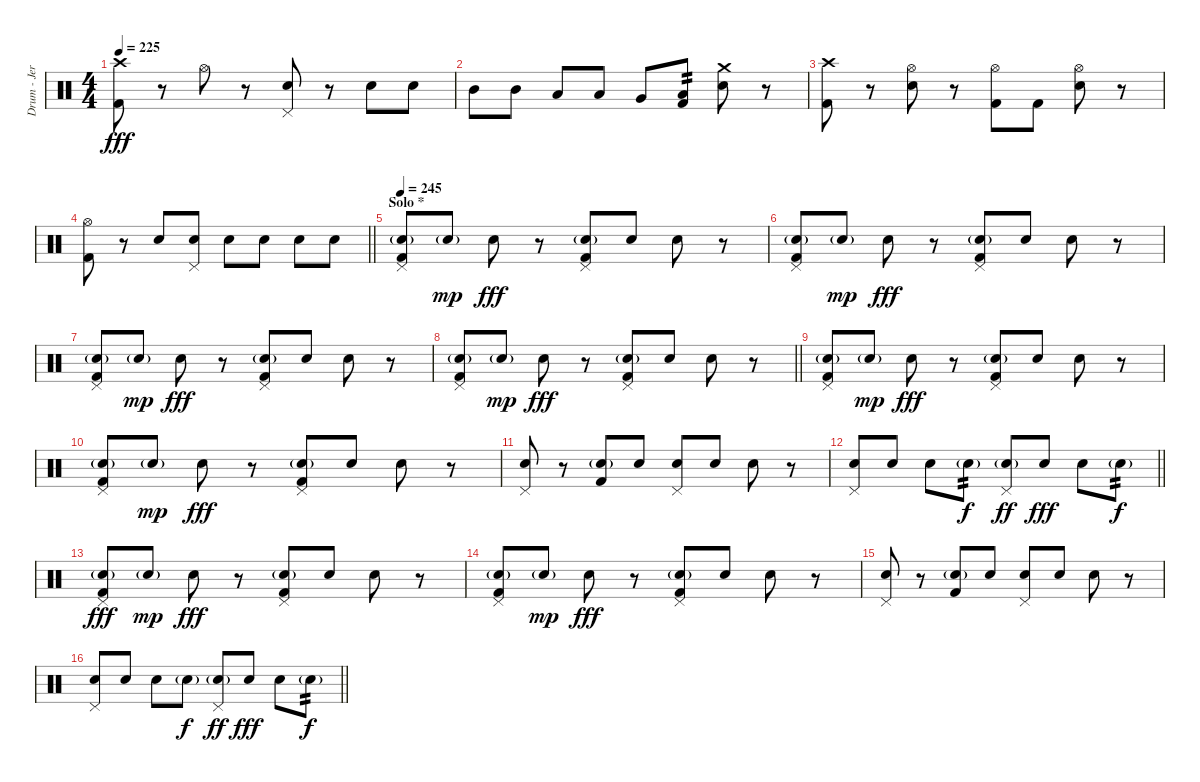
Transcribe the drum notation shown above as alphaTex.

\track ("Drum - Jerinx" "Drum - Jer") {instrument percussion}
\staff {score}
\articulation defaults
\ts (4 4)
\tempo 225
\clef neutral
\ks c
("Kick (hit) 2" "Crash high (hit)").8{dy fff} r.8 "Hi-Hat (open)".8 r.8 ("Pedal Hi-Hat (hit)" "Snare (hit) 2").8 r.8 "Snare (hit) 2".8 "Snare (hit) 2".8 |
"Mid Tom (hit)".8 "Mid Tom (hit)".8 "Low Tom (hit)".8 "Low Tom (hit)".8 "Very Low Tom (hit)".8 ("Kick (hit) 2" "Low Floor Tom (hit)").8{tp 2} ("Snare (hit) 2" "Crash medium (hit)").8 r.8 |
("Kick (hit) 2" "Crash high (hit)").8 r.8 ("Hi-Hat (open)" "Snare (hit) 2").8 r.8 ("Hi-Hat (open)" "Kick (hit) 2").8 "Kick (hit) 2".8 ("Hi-Hat (open)" "Snare (hit) 2").8 r.8 |
\barLineRight lightlight
("Hi-Hat (open)" "Kick (hit) 2").8 r.8 "Snare (hit) 2".8 ("Pedal Hi-Hat (hit)" "Snare (hit) 2").8 "Snare (hit) 2".8 "Snare (hit) 2".8 "Snare (hit) 2".8 "Snare (hit) 2".8 |
\section ("" "Solo *")
\tempo 245
("Pedal Hi-Hat (hit)" "Snare (hit) 2"{g} "Kick (hit) 2").8 "Snare (hit) 2"{g}.8{dy mp} "Snare (hit) 2".8{dy fff} r.8 ("Pedal Hi-Hat (hit)" "Snare (hit) 2"{g} "Kick (hit) 2").8 "Snare (hit) 2".8 "Snare (hit) 2".8 r.8 |
("Pedal Hi-Hat (hit)" "Snare (hit) 2"{g} "Kick (hit) 2").8 "Snare (hit) 2"{g}.8{dy mp} "Snare (hit) 2".8{dy fff} r.8 ("Pedal Hi-Hat (hit)" "Snare (hit) 2"{g} "Kick (hit) 2").8 "Snare (hit) 2".8 "Snare (hit) 2".8 r.8 |
("Pedal Hi-Hat (hit)" "Snare (hit) 2"{g} "Kick (hit) 2").8 "Snare (hit) 2"{g}.8{dy mp} "Snare (hit) 2".8{dy fff} r.8 ("Pedal Hi-Hat (hit)" "Snare (hit) 2"{g} "Kick (hit) 2").8 "Snare (hit) 2".8 "Snare (hit) 2".8 r.8 |
\barLineRight lightlight
("Pedal Hi-Hat (hit)" "Snare (hit) 2"{g} "Kick (hit) 2").8 "Snare (hit) 2"{g}.8{dy mp} "Snare (hit) 2".8{dy fff} r.8 ("Pedal Hi-Hat (hit)" "Snare (hit) 2"{g} "Kick (hit) 2").8 "Snare (hit) 2".8 "Snare (hit) 2".8 r.8 |
("Pedal Hi-Hat (hit)" "Snare (hit) 2"{g} "Kick (hit) 2").8 "Snare (hit) 2"{g}.8{dy mp} "Snare (hit) 2".8{dy fff} r.8 ("Pedal Hi-Hat (hit)" "Snare (hit) 2"{g} "Kick (hit) 2").8 "Snare (hit) 2".8 "Snare (hit) 2".8 r.8 |
("Pedal Hi-Hat (hit)" "Snare (hit) 2"{g} "Kick (hit) 2").8 "Snare (hit) 2"{g}.8{dy mp} "Snare (hit) 2".8{dy fff} r.8 ("Pedal Hi-Hat (hit)" "Snare (hit) 2"{g} "Kick (hit) 2").8 "Snare (hit) 2".8 "Snare (hit) 2".8 r.8 |
("Pedal Hi-Hat (hit)" "Snare (hit) 2").8 r.8 ("Snare (hit) 2"{g} "Kick (hit) 2").8 "Snare (hit) 2".8 ("Pedal Hi-Hat (hit)" "Snare (hit) 2").8 "Snare (hit) 2".8 "Snare (hit) 2".8 r.8 |
\barLineRight lightlight
("Pedal Hi-Hat (hit)" "Snare (hit) 2").8 "Snare (hit) 2".8 "Snare (hit) 2".8 "Snare (hit) 2"{g}.8{tp 2 dy f} ("Pedal Hi-Hat (hit)" "Snare (hit) 2"{g}).8{dy ff} "Snare (hit) 2".8{dy fff} "Snare (hit) 2".8 "Snare (hit) 2"{g}.8{tp 2 dy f} |
("Pedal Hi-Hat (hit)" "Snare (hit) 2"{g} "Kick (hit) 2").8{dy fff} "Snare (hit) 2"{g}.8{dy mp} "Snare (hit) 2".8{dy fff} r.8 ("Pedal Hi-Hat (hit)" "Snare (hit) 2"{g} "Kick (hit) 2").8 "Snare (hit) 2".8 "Snare (hit) 2".8 r.8 |
("Pedal Hi-Hat (hit)" "Snare (hit) 2"{g} "Kick (hit) 2").8 "Snare (hit) 2"{g}.8{dy mp} "Snare (hit) 2".8{dy fff} r.8 ("Pedal Hi-Hat (hit)" "Snare (hit) 2"{g} "Kick (hit) 2").8 "Snare (hit) 2".8 "Snare (hit) 2".8 r.8 |
("Pedal Hi-Hat (hit)" "Snare (hit) 2").8 r.8 ("Snare (hit) 2"{g} "Kick (hit) 2").8 "Snare (hit) 2".8 ("Pedal Hi-Hat (hit)" "Snare (hit) 2").8 "Snare (hit) 2".8 "Snare (hit) 2".8 r.8 |
\barLineRight lightlight
("Pedal Hi-Hat (hit)" "Snare (hit) 2").8 "Snare (hit) 2".8 "Snare (hit) 2".8 "Snare (hit) 2"{g}.8{dy f} ("Pedal Hi-Hat (hit)" "Snare (hit) 2"{g}).8{dy ff} "Snare (hit) 2".8{dy fff} "Snare (hit) 2".8 "Snare (hit) 2"{g}.8{tp 2 dy f}
